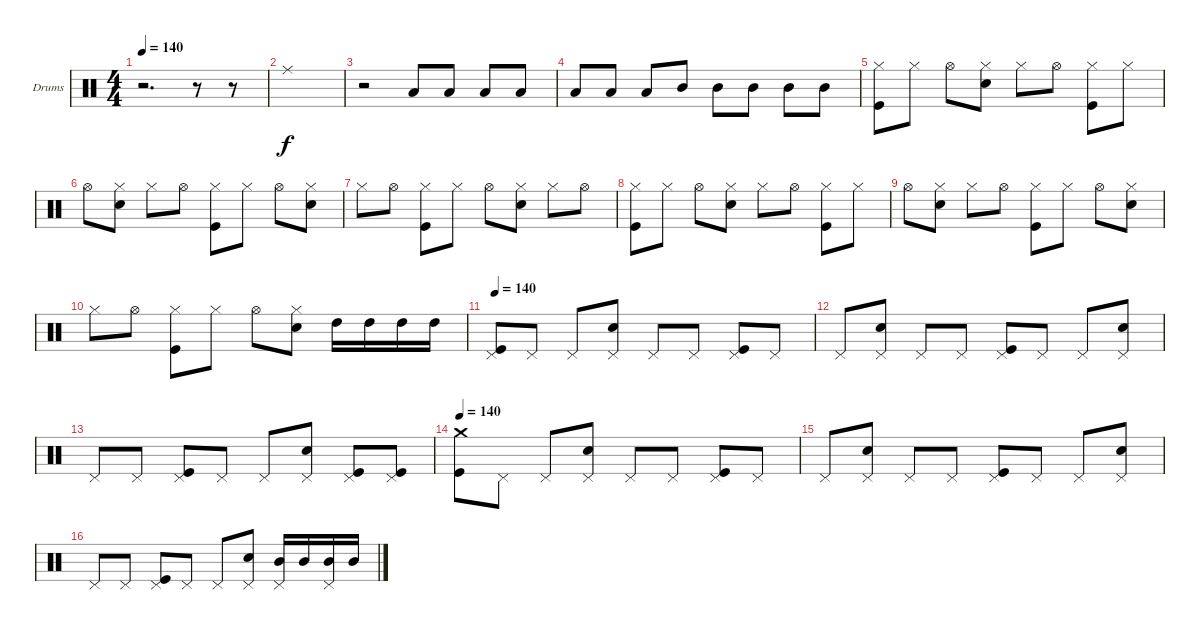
\bracketExtendMode groupsimilarinstruments
\firstSystemTrackNameOrientation horizontal
\otherSystemsTrackNameOrientation horizontal
\track ("Drumkit" "Drums") {instrument percussion}
\staff {score}
\articulation defaults
\ts (4 4)
\tempo 140
\clef neutral
\ks c
r.2{d dy f} r.8 r.8 |
"Ride (middle)".1 |
r.2 "Low Tom (hit)".8 "Low Tom (hit)".8 "Low Tom (hit)".8 "Low Tom (hit)".8 |
"Low Tom (hit)".8 "Low Tom (hit)".8 "Low Tom (hit)".8 "Mid Tom (hit)".8 "Mid Tom (hit)".8 "Mid Tom (hit)".8 "Mid Tom (hit)".8 "Mid Tom (hit)".8 |
("Kick (hit)" "Hi-Hat (closed)").8 "Hi-Hat (closed)".8 "Hi-Hat (open)".8 ("Snare (hit) 2" "Hi-Hat (closed)").8 "Hi-Hat (closed)".8 "Hi-Hat (open)".8 ("Kick (hit)" "Hi-Hat (closed)").8 "Hi-Hat (closed)".8 |
"Hi-Hat (open)".8 ("Snare (hit) 2" "Hi-Hat (closed)").8 "Hi-Hat (closed)".8 "Hi-Hat (open)".8 ("Kick (hit)" "Hi-Hat (closed)").8 "Hi-Hat (closed)".8 "Hi-Hat (open)".8 ("Snare (hit) 2" "Hi-Hat (closed)").8 |
"Hi-Hat (closed)".8 "Hi-Hat (open)".8 ("Kick (hit)" "Hi-Hat (closed)").8 "Hi-Hat (closed)".8 "Hi-Hat (open)".8 ("Snare (hit) 2" "Hi-Hat (closed)").8 "Hi-Hat (closed)".8 "Hi-Hat (open)".8 |
("Kick (hit)" "Hi-Hat (closed)").8 "Hi-Hat (closed)".8 "Hi-Hat (open)".8 ("Snare (hit) 2" "Hi-Hat (closed)").8 "Hi-Hat (closed)".8 "Hi-Hat (open)".8 ("Kick (hit)" "Hi-Hat (closed)").8 "Hi-Hat (closed)".8 |
"Hi-Hat (open)".8 ("Snare (hit) 2" "Hi-Hat (closed)").8 "Hi-Hat (closed)".8 "Hi-Hat (open)".8 ("Kick (hit)" "Hi-Hat (closed)").8 "Hi-Hat (closed)".8 "Hi-Hat (open)".8 ("Snare (hit) 2" "Hi-Hat (closed)").8 |
"Hi-Hat (closed)".8 "Hi-Hat (open)".8 ("Kick (hit)" "Hi-Hat (closed)").8 "Hi-Hat (closed)".8 "Hi-Hat (open)".8 ("Snare (hit) 2" "Hi-Hat (closed)").8 "High Tom (hit)".16 "High Tom (hit)".16 "High Tom (hit)".16 "High Tom (hit)".16 |
\tempo 140
("Kick (hit)" "Pedal Hi-Hat (hit)").8 "Pedal Hi-Hat (hit)".8 "Pedal Hi-Hat (hit)".8 ("Snare (hit) 2" "Pedal Hi-Hat (hit)").8 "Pedal Hi-Hat (hit)".8 "Pedal Hi-Hat (hit)".8 ("Kick (hit)" "Pedal Hi-Hat (hit)").8 "Pedal Hi-Hat (hit)".8 |
"Pedal Hi-Hat (hit)".8 ("Snare (hit) 2" "Pedal Hi-Hat (hit)").8 "Pedal Hi-Hat (hit)".8 "Pedal Hi-Hat (hit)".8 ("Kick (hit)" "Pedal Hi-Hat (hit)").8 "Pedal Hi-Hat (hit)".8 "Pedal Hi-Hat (hit)".8 ("Snare (hit) 2" "Pedal Hi-Hat (hit)").8 |
"Pedal Hi-Hat (hit)".8 "Pedal Hi-Hat (hit)".8 ("Kick (hit)" "Pedal Hi-Hat (hit)").8 "Pedal Hi-Hat (hit)".8 "Pedal Hi-Hat (hit)".8 ("Snare (hit) 2" "Pedal Hi-Hat (hit)").8 ("Kick (hit)" "Pedal Hi-Hat (hit)").8 ("Kick (hit)" "Pedal Hi-Hat (hit)").8 |
\tempo 140
("Kick (hit)" "Crash medium (hit)").8 "Pedal Hi-Hat (hit)".8 "Pedal Hi-Hat (hit)".8 ("Snare (hit) 2" "Pedal Hi-Hat (hit)").8 "Pedal Hi-Hat (hit)".8 "Pedal Hi-Hat (hit)".8 ("Kick (hit)" "Pedal Hi-Hat (hit)").8 "Pedal Hi-Hat (hit)".8 |
"Pedal Hi-Hat (hit)".8 ("Snare (hit) 2" "Pedal Hi-Hat (hit)").8 "Pedal Hi-Hat (hit)".8 "Pedal Hi-Hat (hit)".8 ("Kick (hit)" "Pedal Hi-Hat (hit)").8 "Pedal Hi-Hat (hit)".8 "Pedal Hi-Hat (hit)".8 ("Snare (hit) 2" "Pedal Hi-Hat (hit)").8 |
"Pedal Hi-Hat (hit)".8 "Pedal Hi-Hat (hit)".8 ("Kick (hit)" "Pedal Hi-Hat (hit)").8 "Pedal Hi-Hat (hit)".8 "Pedal Hi-Hat (hit)".8 ("Snare (hit) 2" "Pedal Hi-Hat (hit)").8 ("Mid Tom (hit)" "Pedal Hi-Hat (hit)").16 "Mid Tom (hit)".16 ("Mid Tom (hit)" "Pedal Hi-Hat (hit)").16 "Mid Tom (hit)".16
